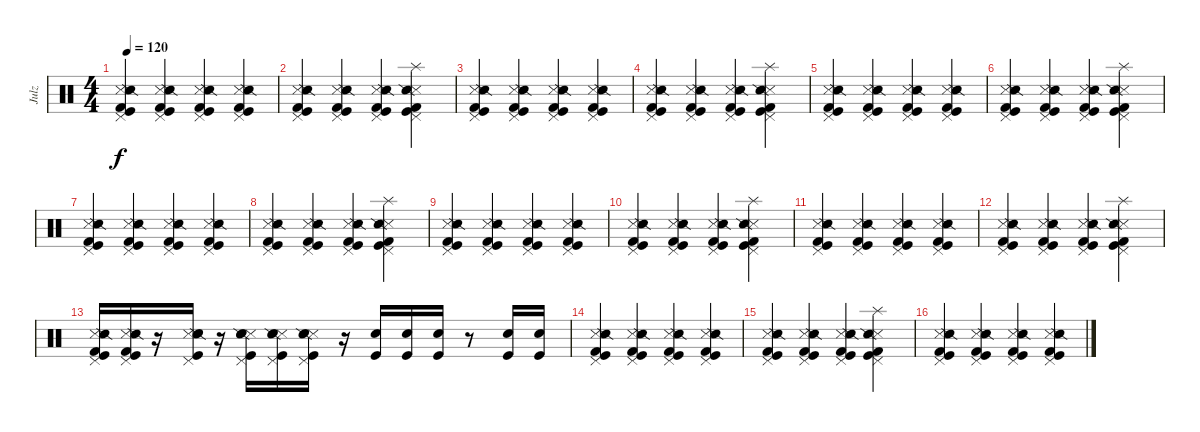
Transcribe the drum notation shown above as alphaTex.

\track ("Julz" "Julz") {instrument percussion}
\staff {score}
\articulation defaults
\ts (4 4)
\tempo 120
\clef neutral
\ks c
("Metronome (hit)" "Snare (side stick) 2" "Pedal Hi-Hat (hit)" "Kick (hit)" "Kick (hit) 2").4{dy f} ("Metronome (hit)" "Snare (side stick) 2" "Pedal Hi-Hat (hit)" "Kick (hit)" "Kick (hit) 2").4 ("Metronome (hit)" "Snare (side stick) 2" "Pedal Hi-Hat (hit)" "Kick (hit)" "Kick (hit) 2").4 ("Metronome (hit)" "Snare (side stick) 2" "Pedal Hi-Hat (hit)" "Kick (hit)" "Kick (hit) 2").4 |
("Metronome (hit)" "Snare (side stick) 2" "Pedal Hi-Hat (hit)" "Kick (hit)" "Kick (hit) 2").4 ("Metronome (hit)" "Snare (side stick) 2" "Pedal Hi-Hat (hit)" "Kick (hit)" "Kick (hit) 2").4 ("Metronome (hit)" "Snare (side stick) 2" "Pedal Hi-Hat (hit)" "Kick (hit)" "Kick (hit) 2").4 ("Splash (hit)" "Metronome (hit)" "Snare (side stick) 2" "Pedal Hi-Hat (hit)" "Kick (hit)" "Kick (hit) 2").4 |
("Metronome (hit)" "Snare (side stick) 2" "Pedal Hi-Hat (hit)" "Kick (hit)" "Kick (hit) 2").4 ("Metronome (hit)" "Snare (side stick) 2" "Pedal Hi-Hat (hit)" "Kick (hit)" "Kick (hit) 2").4 ("Metronome (hit)" "Snare (side stick) 2" "Pedal Hi-Hat (hit)" "Kick (hit)" "Kick (hit) 2").4 ("Metronome (hit)" "Snare (side stick) 2" "Pedal Hi-Hat (hit)" "Kick (hit)" "Kick (hit) 2").4 |
("Metronome (hit)" "Snare (side stick) 2" "Pedal Hi-Hat (hit)" "Kick (hit)" "Kick (hit) 2").4 ("Metronome (hit)" "Snare (side stick) 2" "Pedal Hi-Hat (hit)" "Kick (hit)" "Kick (hit) 2").4 ("Metronome (hit)" "Snare (side stick) 2" "Pedal Hi-Hat (hit)" "Kick (hit)" "Kick (hit) 2").4 ("Splash (hit)" "Metronome (hit)" "Snare (side stick) 2" "Pedal Hi-Hat (hit)" "Kick (hit)" "Kick (hit) 2").4 |
("Metronome (hit)" "Snare (side stick) 2" "Pedal Hi-Hat (hit)" "Kick (hit)" "Kick (hit) 2").4 ("Metronome (hit)" "Snare (side stick) 2" "Pedal Hi-Hat (hit)" "Kick (hit)" "Kick (hit) 2").4 ("Metronome (hit)" "Snare (side stick) 2" "Pedal Hi-Hat (hit)" "Kick (hit)" "Kick (hit) 2").4 ("Metronome (hit)" "Snare (side stick) 2" "Pedal Hi-Hat (hit)" "Kick (hit)" "Kick (hit) 2").4 |
("Metronome (hit)" "Snare (side stick) 2" "Pedal Hi-Hat (hit)" "Kick (hit)" "Kick (hit) 2").4 ("Metronome (hit)" "Snare (side stick) 2" "Pedal Hi-Hat (hit)" "Kick (hit)" "Kick (hit) 2").4 ("Metronome (hit)" "Snare (side stick) 2" "Pedal Hi-Hat (hit)" "Kick (hit)" "Kick (hit) 2").4 ("Splash (hit)" "Metronome (hit)" "Snare (side stick) 2" "Pedal Hi-Hat (hit)" "Kick (hit)" "Kick (hit) 2").4 |
("Metronome (hit)" "Snare (side stick) 2" "Pedal Hi-Hat (hit)" "Kick (hit)" "Kick (hit) 2").4 ("Metronome (hit)" "Snare (side stick) 2" "Pedal Hi-Hat (hit)" "Kick (hit)" "Kick (hit) 2").4 ("Metronome (hit)" "Snare (side stick) 2" "Pedal Hi-Hat (hit)" "Kick (hit)" "Kick (hit) 2").4 ("Metronome (hit)" "Snare (side stick) 2" "Pedal Hi-Hat (hit)" "Kick (hit)" "Kick (hit) 2").4 |
("Metronome (hit)" "Snare (side stick) 2" "Pedal Hi-Hat (hit)" "Kick (hit)" "Kick (hit) 2").4 ("Metronome (hit)" "Snare (side stick) 2" "Pedal Hi-Hat (hit)" "Kick (hit)" "Kick (hit) 2").4 ("Metronome (hit)" "Snare (side stick) 2" "Pedal Hi-Hat (hit)" "Kick (hit)" "Kick (hit) 2").4 ("Splash (hit)" "Metronome (hit)" "Snare (side stick) 2" "Pedal Hi-Hat (hit)" "Kick (hit)" "Kick (hit) 2").4 |
("Metronome (hit)" "Snare (side stick) 2" "Pedal Hi-Hat (hit)" "Kick (hit)" "Kick (hit) 2").4 ("Metronome (hit)" "Snare (side stick) 2" "Pedal Hi-Hat (hit)" "Kick (hit)" "Kick (hit) 2").4 ("Metronome (hit)" "Snare (side stick) 2" "Pedal Hi-Hat (hit)" "Kick (hit)" "Kick (hit) 2").4 ("Metronome (hit)" "Snare (side stick) 2" "Pedal Hi-Hat (hit)" "Kick (hit)" "Kick (hit) 2").4 |
("Metronome (hit)" "Snare (side stick) 2" "Pedal Hi-Hat (hit)" "Kick (hit)" "Kick (hit) 2").4 ("Metronome (hit)" "Snare (side stick) 2" "Pedal Hi-Hat (hit)" "Kick (hit)" "Kick (hit) 2").4 ("Metronome (hit)" "Snare (side stick) 2" "Pedal Hi-Hat (hit)" "Kick (hit)" "Kick (hit) 2").4 ("Splash (hit)" "Metronome (hit)" "Snare (side stick) 2" "Pedal Hi-Hat (hit)" "Kick (hit)" "Kick (hit) 2").4 |
("Metronome (hit)" "Snare (side stick) 2" "Pedal Hi-Hat (hit)" "Kick (hit)" "Kick (hit) 2").4 ("Metronome (hit)" "Snare (side stick) 2" "Pedal Hi-Hat (hit)" "Kick (hit)" "Kick (hit) 2").4 ("Metronome (hit)" "Snare (side stick) 2" "Pedal Hi-Hat (hit)" "Kick (hit)" "Kick (hit) 2").4 ("Metronome (hit)" "Snare (side stick) 2" "Pedal Hi-Hat (hit)" "Kick (hit)" "Kick (hit) 2").4 |
("Metronome (hit)" "Snare (side stick) 2" "Pedal Hi-Hat (hit)" "Kick (hit)" "Kick (hit) 2").4 ("Metronome (hit)" "Snare (side stick) 2" "Pedal Hi-Hat (hit)" "Kick (hit)" "Kick (hit) 2").4 ("Metronome (hit)" "Snare (side stick) 2" "Pedal Hi-Hat (hit)" "Kick (hit)" "Kick (hit) 2").4 ("Splash (hit)" "Metronome (hit)" "Snare (side stick) 2" "Pedal Hi-Hat (hit)" "Kick (hit)" "Kick (hit) 2").4 |
("Metronome (hit)" "Snare (side stick) 2" "Pedal Hi-Hat (hit)" "Kick (hit)" "Kick (hit) 2").16 ("Metronome (hit)" "Snare (side stick) 2" "Pedal Hi-Hat (hit)" "Kick (hit)" "Kick (hit) 2").16 r.16 ("Metronome (hit)" "Snare (side stick) 2" "Pedal Hi-Hat (hit)" "Kick (hit)" "Hand Clap (hit)").16 r.16 ("Metronome (hit)" "Snare (side stick) 2" "Pedal Hi-Hat (hit)" "Kick (hit)" "Hand Clap (hit)").16 ("Metronome (hit)" "Snare (side stick) 2" "Pedal Hi-Hat (hit)" "Kick (hit)" "Hand Clap (hit)").16 ("Metronome (hit)" "Snare (side stick) 2" "Pedal Hi-Hat (hit)" "Kick (hit)" "Hand Clap (hit)").16 r.16 ("Kick (hit)" "Hand Clap (hit)").16 ("Kick (hit)" "Hand Clap (hit)").16 ("Kick (hit)" "Hand Clap (hit)").16 r.8 ("Kick (hit)" "Hand Clap (hit)").16 ("Kick (hit)" "Hand Clap (hit)").16 |
("Metronome (hit)" "Snare (side stick) 2" "Pedal Hi-Hat (hit)" "Kick (hit)" "Kick (hit) 2").4 ("Metronome (hit)" "Snare (side stick) 2" "Pedal Hi-Hat (hit)" "Kick (hit)" "Kick (hit) 2").4 ("Metronome (hit)" "Snare (side stick) 2" "Pedal Hi-Hat (hit)" "Kick (hit)" "Kick (hit) 2").4 ("Metronome (hit)" "Snare (side stick) 2" "Pedal Hi-Hat (hit)" "Kick (hit)" "Kick (hit) 2").4 |
("Metronome (hit)" "Snare (side stick) 2" "Pedal Hi-Hat (hit)" "Kick (hit)" "Kick (hit) 2").4 ("Metronome (hit)" "Snare (side stick) 2" "Pedal Hi-Hat (hit)" "Kick (hit)" "Kick (hit) 2").4 ("Metronome (hit)" "Snare (side stick) 2" "Pedal Hi-Hat (hit)" "Kick (hit)" "Kick (hit) 2").4 ("Splash (hit)" "Metronome (hit)" "Snare (side stick) 2" "Pedal Hi-Hat (hit)" "Kick (hit)" "Kick (hit) 2").4 |
("Metronome (hit)" "Snare (side stick) 2" "Pedal Hi-Hat (hit)" "Kick (hit)" "Kick (hit) 2").4 ("Metronome (hit)" "Snare (side stick) 2" "Pedal Hi-Hat (hit)" "Kick (hit)" "Kick (hit) 2").4 ("Metronome (hit)" "Snare (side stick) 2" "Pedal Hi-Hat (hit)" "Kick (hit)" "Kick (hit) 2").4 ("Metronome (hit)" "Snare (side stick) 2" "Pedal Hi-Hat (hit)" "Kick (hit)" "Kick (hit) 2").4
